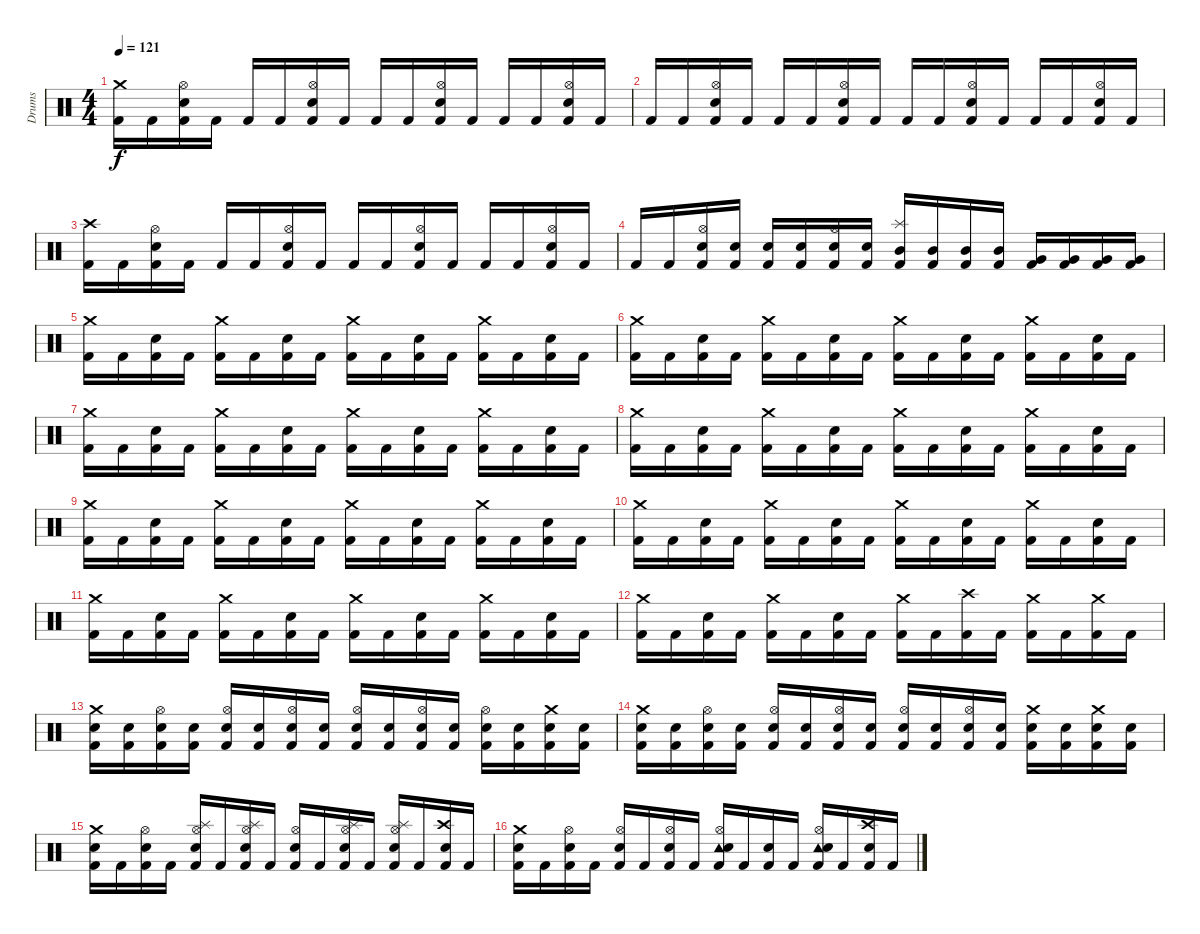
\track ("Drums" "Drums") {instrument percussion}
\staff {score}
\articulation defaults
\ts (4 4)
\tempo 121
\clef neutral
\ks c
("Crash medium (hit)" "Kick (hit) 2").16{dy f} "Kick (hit) 2".16 ("Hi-Hat (open)" "Electric Snare (hit)" "Kick (hit) 2").16 "Kick (hit) 2".16 "Kick (hit) 2".16 "Kick (hit) 2".16 ("Hi-Hat (open)" "Electric Snare (hit)" "Kick (hit) 2").16 "Kick (hit) 2".16 "Kick (hit) 2".16 "Kick (hit) 2".16 ("Hi-Hat (open)" "Electric Snare (hit)" "Kick (hit) 2").16 "Kick (hit) 2".16 "Kick (hit) 2".16 "Kick (hit) 2".16 ("Hi-Hat (open)" "Electric Snare (hit)" "Kick (hit) 2").16 "Kick (hit) 2".16 |
"Kick (hit) 2".16 "Kick (hit) 2".16 ("Hi-Hat (open)" "Electric Snare (hit)" "Kick (hit) 2").16 "Kick (hit) 2".16 "Kick (hit) 2".16 "Kick (hit) 2".16 ("Hi-Hat (open)" "Electric Snare (hit)" "Kick (hit) 2").16 "Kick (hit) 2".16 "Kick (hit) 2".16 "Kick (hit) 2".16 ("Hi-Hat (open)" "Electric Snare (hit)" "Kick (hit) 2").16 "Kick (hit) 2".16 "Kick (hit) 2".16 "Kick (hit) 2".16 ("Hi-Hat (open)" "Electric Snare (hit)" "Kick (hit) 2").16 "Kick (hit) 2".16 |
("Crash high (hit)" "Kick (hit) 2").16 "Kick (hit) 2".16 ("Hi-Hat (open)" "Electric Snare (hit)" "Kick (hit) 2").16 "Kick (hit) 2".16 "Kick (hit) 2".16 "Kick (hit) 2".16 ("Hi-Hat (open)" "Electric Snare (hit)" "Kick (hit) 2").16 "Kick (hit) 2".16 "Kick (hit) 2".16 "Kick (hit) 2".16 ("Hi-Hat (open)" "Electric Snare (hit)" "Kick (hit) 2").16 "Kick (hit) 2".16 "Kick (hit) 2".16 "Kick (hit) 2".16 ("Hi-Hat (open)" "Electric Snare (hit)" "Kick (hit) 2").16 "Kick (hit) 2".16 |
"Kick (hit) 2".16 "Kick (hit) 2".16 ("Hi-Hat (open)" "Electric Snare (hit)" "Kick (hit) 2").16 ("Electric Snare (hit)" "Kick (hit) 2").16 ("Electric Snare (hit)" "Kick (hit) 2").16 ("Electric Snare (hit)" "Kick (hit) 2").16 ("Hi-Hat (open)" "Electric Snare (hit)" "Kick (hit) 2").16 ("Electric Snare (hit)" "Kick (hit) 2").16 ("Splash (hit)" "Mid Tom (hit)" "Kick (hit) 2").16 ("Mid Tom (hit)" "Kick (hit) 2").16 ("Mid Tom (hit)" "Kick (hit) 2").16 ("Mid Tom (hit)" "Kick (hit) 2").16 ("Very Low Tom (hit)" "Kick (hit) 2").16 ("Very Low Tom (hit)" "Kick (hit) 2").16 ("Very Low Tom (hit)" "Kick (hit) 2").16 ("Very Low Tom (hit)" "Kick (hit) 2").16 |
("Crash medium (hit)" "Kick (hit) 2").16 "Kick (hit) 2".16 ("Electric Snare (hit)" "Kick (hit) 2").16 "Kick (hit) 2".16 ("Crash medium (hit)" "Kick (hit) 2").16 "Kick (hit) 2".16 ("Electric Snare (hit)" "Kick (hit) 2").16 "Kick (hit) 2".16 ("Crash medium (hit)" "Kick (hit) 2").16 "Kick (hit) 2".16 ("Electric Snare (hit)" "Kick (hit) 2").16 "Kick (hit) 2".16 ("Crash medium (hit)" "Kick (hit) 2").16 "Kick (hit) 2".16 ("Electric Snare (hit)" "Kick (hit) 2").16 "Kick (hit) 2".16 |
("Crash medium (hit)" "Kick (hit) 2").16 "Kick (hit) 2".16 ("Electric Snare (hit)" "Kick (hit) 2").16 "Kick (hit) 2".16 ("Crash medium (hit)" "Kick (hit) 2").16 "Kick (hit) 2".16 ("Electric Snare (hit)" "Kick (hit) 2").16 "Kick (hit) 2".16 ("Crash medium (hit)" "Kick (hit) 2").16 "Kick (hit) 2".16 ("Electric Snare (hit)" "Kick (hit) 2").16 "Kick (hit) 2".16 ("Crash medium (hit)" "Kick (hit) 2").16 "Kick (hit) 2".16 ("Electric Snare (hit)" "Kick (hit) 2").16 "Kick (hit) 2".16 |
("Crash medium (hit)" "Kick (hit) 2").16 "Kick (hit) 2".16 ("Electric Snare (hit)" "Kick (hit) 2").16 "Kick (hit) 2".16 ("Crash medium (hit)" "Kick (hit) 2").16 "Kick (hit) 2".16 ("Electric Snare (hit)" "Kick (hit) 2").16 "Kick (hit) 2".16 ("Crash medium (hit)" "Kick (hit) 2").16 "Kick (hit) 2".16 ("Electric Snare (hit)" "Kick (hit) 2").16 "Kick (hit) 2".16 ("Crash medium (hit)" "Kick (hit) 2").16 "Kick (hit) 2".16 ("Electric Snare (hit)" "Kick (hit) 2").16 "Kick (hit) 2".16 |
("Crash medium (hit)" "Kick (hit) 2").16 "Kick (hit) 2".16 ("Electric Snare (hit)" "Kick (hit) 2").16 "Kick (hit) 2".16 ("Crash medium (hit)" "Kick (hit) 2").16 "Kick (hit) 2".16 ("Electric Snare (hit)" "Kick (hit) 2").16 "Kick (hit) 2".16 ("Crash medium (hit)" "Kick (hit) 2").16 "Kick (hit) 2".16 ("Electric Snare (hit)" "Kick (hit) 2").16 "Kick (hit) 2".16 ("Crash medium (hit)" "Kick (hit) 2").16 "Kick (hit) 2".16 ("Electric Snare (hit)" "Kick (hit) 2").16 "Kick (hit) 2".16 |
("Crash medium (hit)" "Kick (hit) 2").16 "Kick (hit) 2".16 ("Electric Snare (hit)" "Kick (hit) 2").16 "Kick (hit) 2".16 ("Crash medium (hit)" "Kick (hit) 2").16 "Kick (hit) 2".16 ("Electric Snare (hit)" "Kick (hit) 2").16 "Kick (hit) 2".16 ("Crash medium (hit)" "Kick (hit) 2").16 "Kick (hit) 2".16 ("Electric Snare (hit)" "Kick (hit) 2").16 "Kick (hit) 2".16 ("Crash medium (hit)" "Kick (hit) 2").16 "Kick (hit) 2".16 ("Electric Snare (hit)" "Kick (hit) 2").16 "Kick (hit) 2".16 |
("Crash medium (hit)" "Kick (hit) 2").16 "Kick (hit) 2".16 ("Electric Snare (hit)" "Kick (hit) 2").16 "Kick (hit) 2".16 ("Crash medium (hit)" "Kick (hit) 2").16 "Kick (hit) 2".16 ("Electric Snare (hit)" "Kick (hit) 2").16 "Kick (hit) 2".16 ("Crash medium (hit)" "Kick (hit) 2").16 "Kick (hit) 2".16 ("Electric Snare (hit)" "Kick (hit) 2").16 "Kick (hit) 2".16 ("Crash medium (hit)" "Kick (hit) 2").16 "Kick (hit) 2".16 ("Electric Snare (hit)" "Kick (hit) 2").16 "Kick (hit) 2".16 |
("Crash medium (hit)" "Kick (hit) 2").16 "Kick (hit) 2".16 ("Electric Snare (hit)" "Kick (hit) 2").16 "Kick (hit) 2".16 ("Crash medium (hit)" "Kick (hit) 2").16 "Kick (hit) 2".16 ("Electric Snare (hit)" "Kick (hit) 2").16 "Kick (hit) 2".16 ("Crash medium (hit)" "Kick (hit) 2").16 "Kick (hit) 2".16 ("Electric Snare (hit)" "Kick (hit) 2").16 "Kick (hit) 2".16 ("Crash medium (hit)" "Kick (hit) 2").16 "Kick (hit) 2".16 ("Electric Snare (hit)" "Kick (hit) 2").16 "Kick (hit) 2".16 |
("Crash medium (hit)" "Kick (hit) 2").16 "Kick (hit) 2".16 ("Electric Snare (hit)" "Kick (hit) 2").16 "Kick (hit) 2".16 ("Crash medium (hit)" "Kick (hit) 2").16 "Kick (hit) 2".16 ("Electric Snare (hit)" "Kick (hit) 2").16 "Kick (hit) 2".16 ("Crash medium (hit)" "Kick (hit) 2").16 "Kick (hit) 2".16 ("Crash high (hit)" "Kick (hit) 2").16 "Kick (hit) 2".16 ("Crash medium (hit)" "Kick (hit) 2").16 "Kick (hit) 2".16 ("Crash medium (hit)" "Kick (hit) 2").16 "Kick (hit) 2".16 |
("Crash medium (hit)" "Snare (hit) 2" "Kick (hit) 2").16 ("Snare (hit) 2" "Kick (hit) 2").16 ("Hi-Hat (open)" "Snare (hit) 2" "Kick (hit) 2").16 ("Snare (hit) 2" "Kick (hit) 2").16 ("Hi-Hat (open)" "Snare (hit) 2" "Kick (hit) 2").16 ("Snare (hit) 2" "Kick (hit) 2").16 ("Hi-Hat (open)" "Snare (hit) 2" "Kick (hit) 2").16 ("Snare (hit) 2" "Kick (hit) 2").16 ("Hi-Hat (open)" "Snare (hit) 2" "Kick (hit) 2").16 ("Snare (hit) 2" "Kick (hit) 2").16 ("Hi-Hat (open)" "Snare (hit) 2" "Kick (hit) 2").16 ("Snare (hit) 2" "Kick (hit) 2").16 ("Hi-Hat (open)" "Snare (hit) 2" "Kick (hit) 2").16 ("Snare (hit) 2" "Kick (hit) 2").16 ("Crash medium (hit)" "Snare (hit) 2" "Kick (hit) 2").16 ("Snare (hit) 2" "Kick (hit) 2").16 |
("Crash medium (hit)" "Snare (hit) 2" "Kick (hit) 2").16 ("Snare (hit) 2" "Kick (hit) 2").16 ("Hi-Hat (open)" "Snare (hit) 2" "Kick (hit) 2").16 ("Snare (hit) 2" "Kick (hit) 2").16 ("Hi-Hat (open)" "Snare (hit) 2" "Kick (hit) 2").16 ("Snare (hit) 2" "Kick (hit) 2").16 ("Hi-Hat (open)" "Snare (hit) 2" "Kick (hit) 2").16 ("Snare (hit) 2" "Kick (hit) 2").16 ("Hi-Hat (open)" "Snare (hit) 2" "Kick (hit) 2").16 ("Snare (hit) 2" "Kick (hit) 2").16 ("Hi-Hat (open)" "Snare (hit) 2" "Kick (hit) 2").16 ("Snare (hit) 2" "Kick (hit) 2").16 ("Crash medium (hit)" "Snare (hit) 2" "Kick (hit) 2").16 ("Snare (hit) 2" "Kick (hit) 2").16 ("Crash medium (hit)" "Snare (hit) 2" "Kick (hit) 2").16 ("Snare (hit) 2" "Kick (hit) 2").16 |
("Crash medium (hit)" "Snare (hit) 2" "Kick (hit) 2").16 "Kick (hit) 2".16 ("Hi-Hat (open)" "Snare (hit) 2" "Kick (hit) 2").16 "Kick (hit) 2".16 ("Hi-Hat (open)" "Splash (hit)" "Snare (hit) 2" "Kick (hit) 2").16 "Kick (hit) 2".16 ("Hi-Hat (open)" "Splash (hit)" "Snare (hit) 2" "Kick (hit) 2").16 "Kick (hit) 2".16 ("Hi-Hat (open)" "Snare (hit) 2" "Kick (hit) 2").16 "Kick (hit) 2".16 ("Hi-Hat (open)" "Splash (hit)" "Snare (hit) 2" "Kick (hit) 2").16 "Kick (hit) 2".16 ("Hi-Hat (open)" "Splash (hit)" "Snare (hit) 2" "Kick (hit) 2").16 "Kick (hit) 2".16 ("Crash high (hit)" "Snare (hit) 2" "Kick (hit) 2").16 "Kick (hit) 2".16 |
("Crash medium (hit)" "Snare (hit) 2" "Kick (hit) 2").16 "Kick (hit) 2".16 ("Hi-Hat (open)" "Snare (hit) 2" "Kick (hit) 2").16 "Kick (hit) 2".16 ("Hi-Hat (open)" "Snare (hit) 2" "Kick (hit) 2").16 "Kick (hit) 2".16 ("Hi-Hat (open)" "Snare (hit) 2" "Kick (hit) 2").16 "Kick (hit) 2".16 ("Hi-Hat (open)" "Tambourine (hit)" "Snare (hit) 2" "Kick (hit) 2").16 "Kick (hit) 2".16 ("Snare (hit) 2" "Kick (hit) 2").16 "Kick (hit) 2".16 ("Hi-Hat (open)" "Tambourine (hit)" "Snare (hit) 2" "Kick (hit) 2").16 "Kick (hit) 2".16 ("Crash high (hit)" "Snare (hit) 2" "Kick (hit) 2").16 "Kick (hit) 2".16
